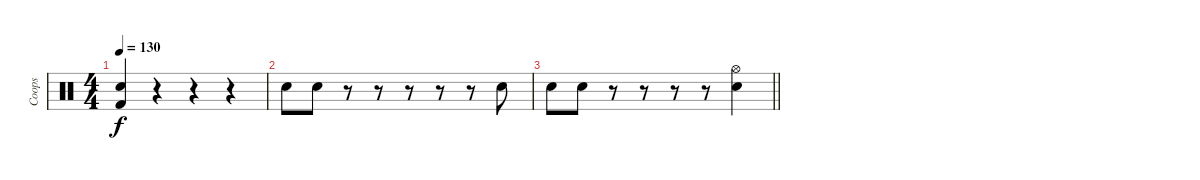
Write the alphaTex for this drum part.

\track ("Coops" "Coops") {instrument percussion}
\staff {score}
\articulation defaults
\ts (4 4)
\tempo 130
\clef neutral
\ks c
("Kick (hit) 2" "Snare (hit) 2").4{dy f} r.4 r.4 r.4 |
"Snare (hit) 2".8 "Snare (hit) 2".8 r.8 r.8 r.8 r.8 r.8 "Snare (hit) 2".8 |
\barLineRight lightlight "Snare (hit) 2".8 "Snare (hit) 2".8
r.8 r.8 r.8 r.8 ("Hi-Hat (open)" "Snare (hit) 2").4
